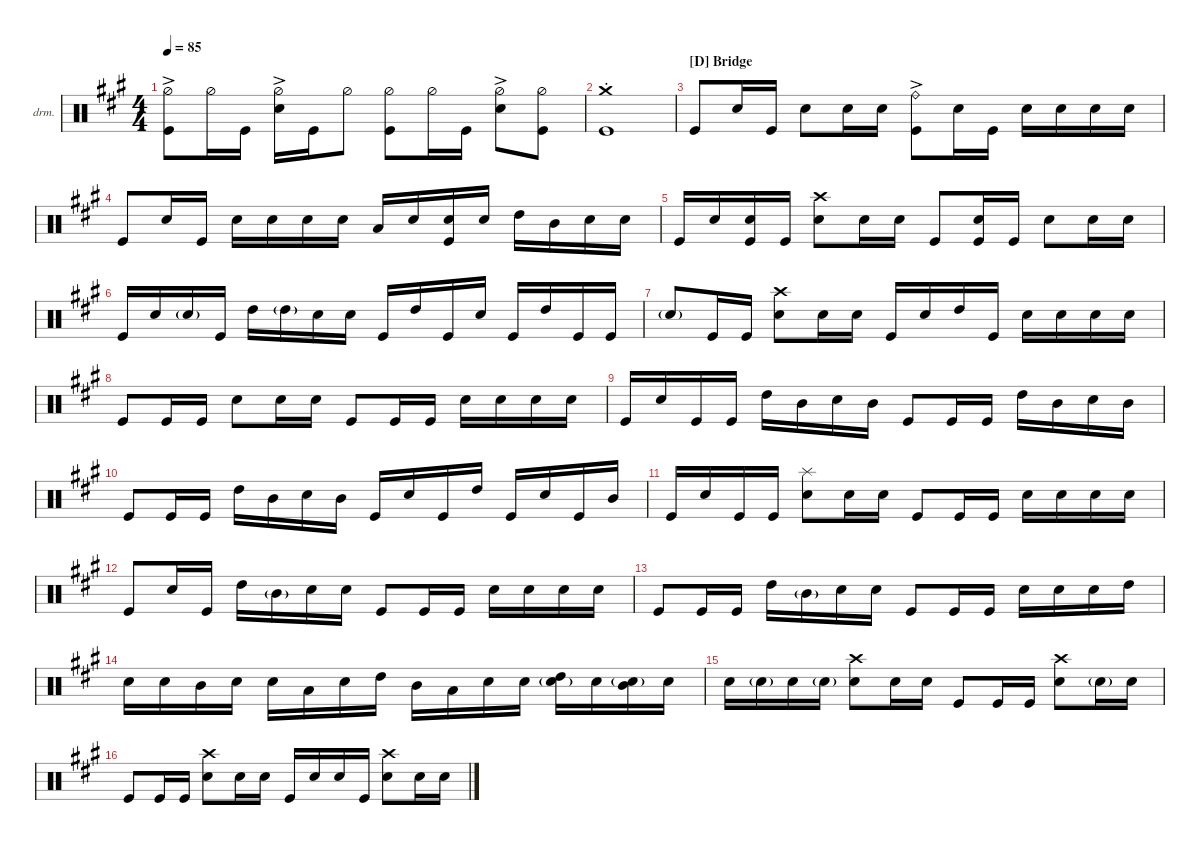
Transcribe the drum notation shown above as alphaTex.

\defaultSystemsLayout 4
\hideDynamics
\bracketExtendMode nobrackets
\firstSystemTrackNameOrientation horizontal
\otherSystemsTrackNameOrientation horizontal
\track ("Drums" "drm.") {instrument percussion}
\staff {score}
\articulation defaults
\ts (4 4)
\tempo 85
\clef neutral
\ks a
("Kick (hit)"{acc forcenatural} "Hi-Hat (half)"{ac acc forcenatural}).8{dy mf beam Down} "Hi-Hat (half)"{acc forcenatural}.16{beam Down} "Kick (hit)"{acc forcenatural}.16{beam Down} ("Snare (hit) 2"{acc forcenatural} "Hi-Hat (half)"{ac acc forcenatural}).16{beam Down} "Kick (hit)"{acc forcenatural}.16{beam Down} "Hi-Hat (half)"{acc forcenatural}.8{beam Down} ("Hi-Hat (half)"{acc forcenatural} "Kick (hit)"{acc forcenatural}).8{beam Down} "Hi-Hat (half)"{acc forcenatural}.16{beam Down} "Kick (hit)"{acc forcenatural}.16{beam Down} ("Snare (hit) 2"{acc forcenatural} "Hi-Hat (half)"{ac acc forcenatural}).8{beam Down} ("Hi-Hat (half)"{acc forcenatural} "Kick (hit)"{acc forcenatural}).8{beam Down} |
("Kick (hit)"{acc forcenatural} "Crash medium (hit)"{st acc forcenatural}).1{beam Down} |
\section ("D" "Bridge")
"Kick (hit)"{acc forcenatural}.8{beam Up} "Snare (hit) 2"{acc forcenatural}.16{dy p beam Up} "Kick (hit)"{acc forcenatural}.16{beam Up} "Snare (hit) 2"{acc forcenatural}.8{dy mf beam Down} "Snare (hit) 2"{acc forcenatural}.16{beam Down} "Snare (hit) 2"{acc forcenatural}.16{beam Down} ("Ride (bell)"{ac acc forcenatural} "Kick (hit)"{acc forcenatural}).8{beam Down} "Snare (hit) 2"{acc forcenatural}.16{beam Down} "Kick (hit)"{acc forcenatural}.16{beam Down} "Snare (hit) 2"{acc forcenatural}.16{beam Down} "Snare (hit) 2"{acc forcenatural}.16{beam Down} "Snare (hit) 2"{acc forcenatural}.16{beam Down} "Snare (hit) 2"{acc forcenatural}.16{beam Down} |
"Kick (hit)"{acc forcenatural}.8{beam Up} "Snare (hit) 2"{acc forcenatural}.16{dy p beam Up} "Kick (hit)"{acc forcenatural}.16{dy mf beam Up} "Snare (hit) 2"{acc forcenatural}.16{beam Down} "Snare (hit) 2"{acc forcenatural}.16{dy mp beam Down} "Snare (hit) 2"{acc forcenatural}.16{beam Down} "Snare (hit) 2"{acc forcenatural}.16{beam Down} "Low Tom (hit)"{acc forcenatural}.16{dy mf beam Up} "Snare (hit) 2"{acc forcenatural}.16{beam Up} ("Snare (hit) 2"{acc forcenatural} "Kick (hit)"{acc forcenatural}).16{beam Up} "Snare (hit) 2"{acc forcenatural}.16{beam Up} "High Tom (hit)"{acc forcenatural}.16{beam Down} "Mid Tom (hit)"{acc forcenatural}.16{beam Down} "Snare (hit) 2"{acc forcenatural}.16{beam Down} "Snare (hit) 2"{acc forcenatural}.16{beam Down} |
"Kick (hit)"{acc forcenatural}.16{beam Up} "Snare (hit) 2"{acc forcenatural}.16{beam Up} ("Snare (hit) 2"{acc forcenatural} "Kick (hit)"{acc forcenatural}).16{beam Up} "Kick (hit)"{acc forcenatural}.16{beam Up} ("Snare (hit) 2"{acc forcenatural} "Crash high (hit)"{acc forcenatural}).8{beam Down} "Snare (hit) 2"{acc forcenatural}.16{beam Down} "Snare (hit) 2"{acc forcenatural}.16{beam Down} "Kick (hit)"{acc forcenatural}.8{beam Up} ("Snare (hit) 2"{acc forcenatural} "Kick (hit)"{acc forcenatural}).16{beam Up} "Kick (hit)"{acc forcenatural}.16{beam Up} "Snare (hit) 2"{acc forcenatural}.8{beam Down} "Snare (hit) 2"{acc forcenatural}.16{dy mp beam Down} "Snare (hit) 2"{acc forcenatural}.16{beam Down} |
"Kick (hit)"{acc forcenatural}.16{dy mf beam Up} "Snare (hit) 2"{acc forcenatural}.16{beam Up} "Snare (hit) 2"{g acc forcenatural}.16{dy mp beam Up} "Kick (hit)"{acc forcenatural}.16{dy p beam Up} "High Tom (hit)"{acc forcenatural}.16{dy mf beam Down} "High Tom (hit)"{g acc forcenatural}.16{dy mp beam Down} "Snare (hit) 2"{acc forcenatural}.16{beam Down} "Snare (hit) 2"{acc forcenatural}.16{dy mf beam Down} "Kick (hit)"{acc forcenatural}.16{beam Up} "High Tom (hit)"{acc forcenatural}.16{beam Up} "Kick (hit)"{acc forcenatural}.16{beam Up} "Snare (hit) 2"{acc forcenatural}.16{beam Up} "Kick (hit)"{acc forcenatural}.16{beam Up} "High Tom (hit)"{acc forcenatural}.16{beam Up} "Kick (hit)"{acc forcenatural}.16{beam Up} "Kick (hit)"{acc forcenatural}.16{beam Up} |
"Snare (hit) 2"{g acc forcenatural}.8{dy mp beam Up} "Kick (hit)"{acc forcenatural}.16{dy mf beam Up} "Kick (hit)"{acc forcenatural}.16{beam Up} ("Snare (hit) 2"{acc forcenatural} "Crash high (hit)"{acc forcenatural}).8{beam Down} "Snare (hit) 2"{acc forcenatural}.16{dy p beam Down} "Snare (hit) 2"{acc forcenatural}.16{beam Down} "Kick (hit)"{acc forcenatural}.16{dy mf beam Up} "Snare (hit) 2"{acc forcenatural}.16{beam Up} "High Tom (hit)"{acc forcenatural}.16{beam Up} "Kick (hit)"{acc forcenatural}.16{beam Up} "Snare (hit) 2"{acc forcenatural}.16{beam Down} "Snare (hit) 2"{acc forcenatural}.16{dy p beam Down} "Snare (hit) 2"{acc forcenatural}.16{beam Down} "Snare (hit) 2"{acc forcenatural}.16{dy mf beam Down} |
"Kick (hit)"{acc forcenatural}.8{beam Up} "Kick (hit)"{acc forcenatural}.16{beam Up} "Kick (hit)"{acc forcenatural}.16{beam Up} "Snare (hit) 2"{acc forcenatural}.8{beam Down} "Snare (hit) 2"{acc forcenatural}.16{beam Down} "Snare (hit) 2"{acc forcenatural}.16{beam Down} "Kick (hit)"{acc forcenatural}.8{beam Up} "Kick (hit)"{acc forcenatural}.16{beam Up} "Kick (hit)"{acc forcenatural}.16{beam Up} "Snare (hit) 2"{acc forcenatural}.16{beam Down} "Snare (hit) 2"{acc forcenatural}.16{dy p beam Down} "Snare (hit) 2"{acc forcenatural}.16{beam Down} "Snare (hit) 2"{acc forcenatural}.16{beam Down} |
"Kick (hit)"{acc forcenatural}.16{dy mf beam Up} "Snare (hit) 2"{acc forcenatural}.16{beam Up} "Kick (hit)"{acc forcenatural}.16{beam Up} "Kick (hit)"{acc forcenatural}.16{beam Up} "High Tom (hit)"{acc forcenatural}.16{beam Down} "Mid Tom (hit)"{acc forcenatural}.16{beam Down} "Snare (hit) 2"{acc forcenatural}.16{dy p beam Down} "Mid Tom (hit)"{acc forcenatural}.16{dy mf beam Down} "Kick (hit)"{acc forcenatural}.8{beam Up} "Kick (hit)"{acc forcenatural}.16{beam Up} "Kick (hit)"{acc forcenatural}.16{beam Up} "High Tom (hit)"{acc forcenatural}.16{beam Down} "Mid Tom (hit)"{acc forcenatural}.16{beam Down} "Snare (hit) 2"{acc forcenatural}.16{dy p beam Down} "Mid Tom (hit)"{acc forcenatural}.16{dy mf beam Down} |
"Kick (hit)"{acc forcenatural}.8{beam Up} "Kick (hit)"{acc forcenatural}.16{beam Up} "Kick (hit)"{acc forcenatural}.16{beam Up} "High Tom (hit)"{acc forcenatural}.16{beam Down} "Mid Tom (hit)"{acc forcenatural}.16{beam Down} "Snare (hit) 2"{acc forcenatural}.16{dy p beam Down} "Mid Tom (hit)"{acc forcenatural}.16{dy mf beam Down} "Kick (hit)"{acc forcenatural}.16{beam Up} "Snare (hit) 2"{acc forcenatural}.16{beam Up} "Kick (hit)"{acc forcenatural}.16{beam Up} "High Tom (hit)"{acc forcenatural}.16{beam Up} "Kick (hit)"{acc forcenatural}.16{beam Up} "Snare (hit) 2"{acc forcenatural}.16{beam Up} "Kick (hit)"{acc forcenatural}.16{beam Up} "Mid Tom (hit)"{acc forcenatural}.16{beam Up} |
"Kick (hit)"{acc forcenatural}.16{beam Up} "Snare (hit) 2"{acc forcenatural}.16{beam Up} "Kick (hit)"{acc forcenatural}.16{beam Up} "Kick (hit)"{acc forcenatural}.16{beam Up} ("Snare (hit) 2"{acc forcenatural} "Splash (hit)"{acc forcenatural}).8{beam Down} "Snare (hit) 2"{acc forcenatural}.16{dy p beam Down} "Snare (hit) 2"{acc forcenatural}.16{beam Down} "Kick (hit)"{acc forcenatural}.8{dy mf beam Up} "Kick (hit)"{acc forcenatural}.16{beam Up} "Kick (hit)"{acc forcenatural}.16{beam Up} "Snare (hit) 2"{acc forcenatural}.16{beam Down} "Snare (hit) 2"{acc forcenatural}.16{beam Down} "Snare (hit) 2"{acc forcenatural}.16{beam Down} "Snare (hit) 2"{acc forcenatural}.16{beam Down} |
"Kick (hit)"{acc forcenatural}.8{beam Up} "Snare (hit) 2"{acc forcenatural}.16{beam Up} "Kick (hit)"{acc forcenatural}.16{beam Up} "High Tom (hit)"{acc forcenatural}.16{beam Down} "Mid Tom (hit)"{g acc forcenatural}.16{dy mp beam Down} "Snare (hit) 2"{acc forcenatural}.16{dy p beam Down} "Snare (hit) 2"{acc forcenatural}.16{dy mf beam Down} "Kick (hit)"{acc forcenatural}.8{beam Up} "Kick (hit)"{acc forcenatural}.16{beam Up} "Kick (hit)"{acc forcenatural}.16{beam Up} "Snare (hit) 2"{acc forcenatural}.16{beam Down} "Snare (hit) 2"{acc forcenatural}.16{beam Down} "Snare (hit) 2"{acc forcenatural}.16{beam Down} "Snare (hit) 2"{acc forcenatural}.16{beam Down} |
"Kick (hit)"{acc forcenatural}.8{beam Up} "Kick (hit)"{acc forcenatural}.16{beam Up} "Kick (hit)"{acc forcenatural}.16{beam Up} "High Tom (hit)"{acc forcenatural}.16{beam Down} "Mid Tom (hit)"{g acc forcenatural}.16{dy mp beam Down} "Snare (hit) 2"{acc forcenatural}.16{dy p beam Down} "Snare (hit) 2"{acc forcenatural}.16{dy mf beam Down} "Kick (hit)"{acc forcenatural}.8{beam Up} "Kick (hit)"{acc forcenatural}.16{beam Up} "Kick (hit)"{acc forcenatural}.16{beam Up} "Snare (hit) 2"{acc forcenatural}.16{beam Down} "Snare (hit) 2"{acc forcenatural}.16{beam Down} "Snare (hit) 2"{acc forcenatural}.16{beam Down} "High Tom (hit)"{acc forcenatural}.16{beam Down} |
"Snare (hit) 2"{acc forcenatural}.16{beam Down} "Snare (hit) 2"{acc forcenatural}.16{beam Down} "Mid Tom (hit)"{acc forcenatural}.16{beam Down} "Snare (hit) 2"{acc forcenatural}.16{beam Down} "Snare (hit) 2"{acc forcenatural}.16{beam Down} "Low Tom (hit)"{acc forcenatural}.16{beam Down} "Snare (hit) 2"{acc forcenatural}.16{beam Down} "High Tom (hit)"{acc forcenatural}.16{beam Down} "Mid Tom (hit)"{acc forcenatural}.16{beam Down} "Low Tom (hit)"{acc forcenatural}.16{beam Down} "Snare (hit) 2"{acc forcenatural}.16{beam Down} "Snare (hit) 2"{acc forcenatural}.16{dy mp beam Down} ("Snare (hit) 2"{g acc forcenatural} "High Tom (hit)"{acc forcenatural}).16{beam Down} "Snare (hit) 2"{acc forcenatural}.16{beam Down} ("Snare (hit) 2"{g acc forcenatural} "Mid Tom (hit)"{acc forcenatural}).16{beam Down} "Snare (hit) 2"{acc forcenatural}.16{beam Down} |
"Snare (hit) 2"{acc forcenatural}.16{dy mf beam Down} "Snare (hit) 2"{g acc forcenatural}.16{dy p beam Down} "Snare (hit) 2"{acc forcenatural}.16{dy mf beam Down} "Snare (hit) 2"{g acc forcenatural}.16{dy p beam Down} ("Snare (hit) 2"{acc forcenatural} "Crash high (hit)"{acc forcenatural}).8{dy mf beam Down} "Snare (hit) 2"{acc forcenatural}.16{dy p beam Down} "Snare (hit) 2"{acc forcenatural}.16{beam Down} "Kick (hit)"{acc forcenatural}.8{beam Up} "Kick (hit)"{acc forcenatural}.16{beam Up} "Kick (hit)"{acc forcenatural}.16{beam Up} ("Snare (hit) 2"{acc forcenatural} "Crash high (hit)"{acc forcenatural}).8{dy mf beam Down} "Snare (hit) 2"{g acc forcenatural}.16{dy p beam Down} "Snare (hit) 2"{acc forcenatural}.16{dy mp beam Down} |
"Kick (hit)"{acc forcenatural}.8{dy mf beam Up} "Kick (hit)"{acc forcenatural}.16{beam Up} "Kick (hit)"{acc forcenatural}.16{beam Up} ("Snare (hit) 2"{acc forcenatural} "Crash high (hit)"{acc forcenatural}).8{beam Down} "Snare (hit) 2"{acc forcenatural}.16{dy p beam Down} "Snare (hit) 2"{acc forcenatural}.16{dy mp beam Down} "Kick (hit)"{acc forcenatural}.16{dy mf beam Up} "Snare (hit) 2"{acc forcenatural}.16{dy mp beam Up} "Snare (hit) 2"{acc forcenatural}.16{beam Up} "Kick (hit)"{acc forcenatural}.16{dy mf beam Up} ("Snare (hit) 2"{acc forcenatural} "Crash high (hit)"{acc forcenatural}).8{beam Down} "Snare (hit) 2"{acc forcenatural}.16{dy mp beam Down} "Snare (hit) 2"{acc forcenatural}.16{beam Down}
